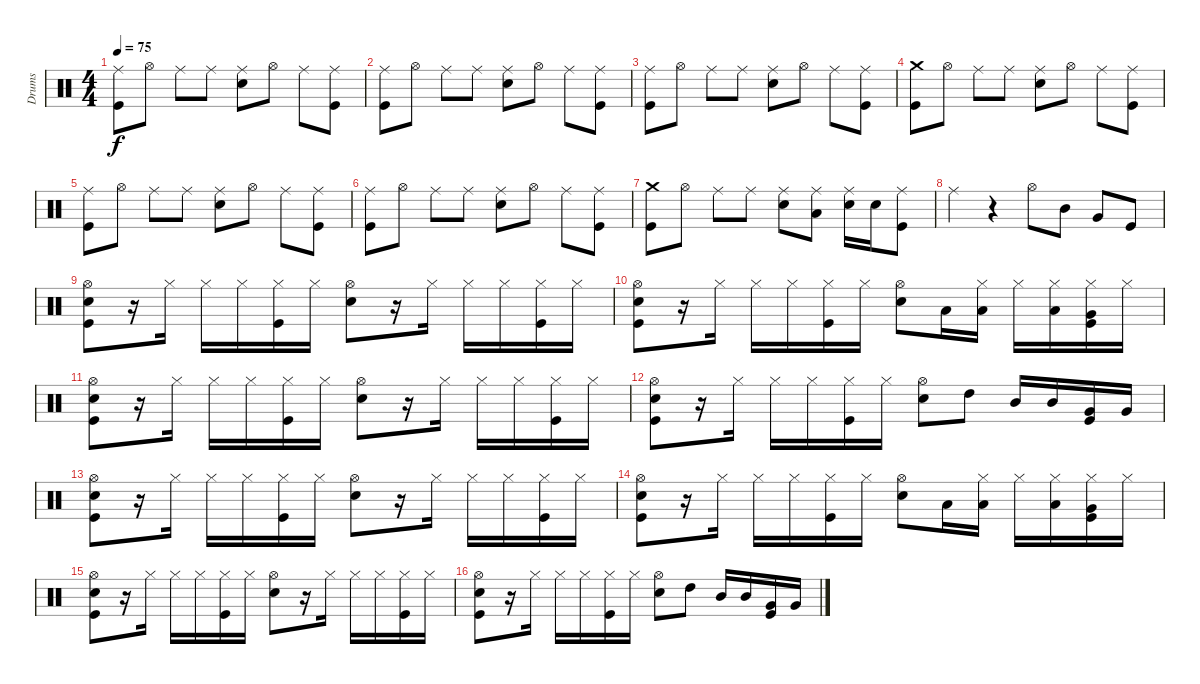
\track ("Drums" "Drums") {instrument percussion}
\staff {score}
\articulation defaults
\ts (4 4)
\tempo 75
\clef neutral
\ks c
("Ride (middle)" "Kick (hit)").8{dy f} "Hi-Hat (open)".8 "Ride (middle)".8 "Ride (middle)".8 ("Snare (hit) 2" "Ride (middle)").8 "Hi-Hat (open)".8 "Ride (middle)".8 ("Kick (hit)" "Ride (middle)").8 |
("Ride (middle)" "Kick (hit)").8 "Hi-Hat (open)".8 "Ride (middle)".8 "Ride (middle)".8 ("Snare (hit) 2" "Ride (middle)").8 "Hi-Hat (open)".8 "Ride (middle)".8 ("Kick (hit)" "Ride (middle)").8 |
("Ride (middle)" "Kick (hit)").8 "Hi-Hat (open)".8 "Ride (middle)".8 "Ride (middle)".8 ("Snare (hit) 2" "Ride (middle)").8 "Hi-Hat (open)".8 "Ride (middle)".8 ("Kick (hit)" "Ride (middle)").8 |
("Crash medium (hit)" "Kick (hit)").8 "Hi-Hat (open)".8 "Ride (middle)".8 "Ride (middle)".8 ("Snare (hit) 2" "Ride (middle)").8 "Hi-Hat (open)".8 "Ride (middle)".8 ("Kick (hit)" "Ride (middle)").8 |
("Ride (middle)" "Kick (hit)").8 "Hi-Hat (open)".8 "Ride (middle)".8 "Ride (middle)".8 ("Snare (hit) 2" "Ride (middle)").8 "Hi-Hat (open)".8 "Ride (middle)".8 ("Kick (hit)" "Ride (middle)").8 |
("Ride (middle)" "Kick (hit)").8 "Hi-Hat (open)".8 "Ride (middle)".8 "Ride (middle)".8 ("Snare (hit) 2" "Ride (middle)").8 "Hi-Hat (open)".8 "Ride (middle)".8 ("Kick (hit)" "Ride (middle)").8 |
("Crash medium (hit)" "Kick (hit)").8 "Hi-Hat (open)".8 "Ride (middle)".8 "Ride (middle)".8 ("Snare (hit) 2" "Ride (middle)").8 ("Low Floor Tom (hit)" "Ride (middle)").8 ("Snare (hit) 2" "Ride (middle)").16 "Snare (hit) 2".16 ("Kick (hit)" "Ride (middle)").8 |
"Ride (middle)".4 r.4 "Hi-Hat (open)".8 "Mid Tom (hit)".8 "Very Low Tom (hit)".8 "Kick (hit)".8 |
("Hi-Hat (open)" "Kick (hit)" "Snare (hit) 2").8 r.16 "Hi-Hat (closed)".16 "Hi-Hat (closed)".16 "Hi-Hat (closed)".16 ("Kick (hit)" "Hi-Hat (closed)").16 "Hi-Hat (closed)".16 ("Snare (hit) 2" "Hi-Hat (open)").8 r.16 "Hi-Hat (closed)".16 "Hi-Hat (closed)".16 "Hi-Hat (closed)".16 ("Kick (hit)" "Hi-Hat (closed)").16 "Hi-Hat (closed)".16 |
("Hi-Hat (open)" "Kick (hit)" "Snare (hit) 2").8 r.16 "Hi-Hat (closed)".16 "Hi-Hat (closed)".16 "Hi-Hat (closed)".16 ("Kick (hit)" "Hi-Hat (closed)").16 "Hi-Hat (closed)".16 ("Snare (hit) 2" "Hi-Hat (open)").8 "Low Tom (hit)".16 ("Low Tom (hit)" "Hi-Hat (closed)").16 "Hi-Hat (closed)".16 ("Low Tom (hit)" "Hi-Hat (closed)").16 ("Very Low Tom (hit)" "Kick (hit)" "Hi-Hat (closed)").16 "Hi-Hat (closed)".16 |
("Hi-Hat (open)" "Kick (hit)" "Snare (hit) 2").8 r.16 "Hi-Hat (closed)".16 "Hi-Hat (closed)".16 "Hi-Hat (closed)".16 ("Kick (hit)" "Hi-Hat (closed)").16 "Hi-Hat (closed)".16 ("Snare (hit) 2" "Hi-Hat (open)").8 r.16 "Hi-Hat (closed)".16 "Hi-Hat (closed)".16 "Hi-Hat (closed)".16 ("Kick (hit)" "Hi-Hat (closed)").16 "Hi-Hat (closed)".16 |
("Hi-Hat (open)" "Kick (hit)" "Snare (hit) 2").8 r.16 "Hi-Hat (closed)".16 "Hi-Hat (closed)".16 "Hi-Hat (closed)".16 ("Kick (hit)" "Hi-Hat (closed)").16 "Hi-Hat (closed)".16 ("Snare (hit) 2" "Hi-Hat (open)").8 "High Tom (hit)".8 "Mid Tom (hit)".16 "Mid Tom (hit)".16 ("Very Low Tom (hit)" "Kick (hit)").16 "Very Low Tom (hit)".16 |
("Hi-Hat (open)" "Kick (hit)" "Snare (hit) 2").8 r.16 "Hi-Hat (closed)".16 "Hi-Hat (closed)".16 "Hi-Hat (closed)".16 ("Kick (hit)" "Hi-Hat (closed)").16 "Hi-Hat (closed)".16 ("Snare (hit) 2" "Hi-Hat (open)").8 r.16 "Hi-Hat (closed)".16 "Hi-Hat (closed)".16 "Hi-Hat (closed)".16 ("Kick (hit)" "Hi-Hat (closed)").16 "Hi-Hat (closed)".16 |
("Hi-Hat (open)" "Kick (hit)" "Snare (hit) 2").8 r.16 "Hi-Hat (closed)".16 "Hi-Hat (closed)".16 "Hi-Hat (closed)".16 ("Kick (hit)" "Hi-Hat (closed)").16 "Hi-Hat (closed)".16 ("Snare (hit) 2" "Hi-Hat (open)").8 "Low Tom (hit)".16 ("Low Tom (hit)" "Hi-Hat (closed)").16 "Hi-Hat (closed)".16 ("Low Tom (hit)" "Hi-Hat (closed)").16 ("Very Low Tom (hit)" "Kick (hit)" "Hi-Hat (closed)").16 "Hi-Hat (closed)".16 |
("Hi-Hat (open)" "Kick (hit)" "Snare (hit) 2").8 r.16 "Hi-Hat (closed)".16 "Hi-Hat (closed)".16 "Hi-Hat (closed)".16 ("Kick (hit)" "Hi-Hat (closed)").16 "Hi-Hat (closed)".16 ("Snare (hit) 2" "Hi-Hat (open)").8 r.16 "Hi-Hat (closed)".16 "Hi-Hat (closed)".16 "Hi-Hat (closed)".16 ("Kick (hit)" "Hi-Hat (closed)").16 "Hi-Hat (closed)".16 |
("Hi-Hat (open)" "Kick (hit)" "Snare (hit) 2").8 r.16 "Hi-Hat (closed)".16 "Hi-Hat (closed)".16 "Hi-Hat (closed)".16 ("Kick (hit)" "Hi-Hat (closed)").16 "Hi-Hat (closed)".16 ("Snare (hit) 2" "Hi-Hat (open)").8 "High Tom (hit)".8 "Mid Tom (hit)".16 "Mid Tom (hit)".16 ("Very Low Tom (hit)" "Kick (hit)").16 "Very Low Tom (hit)".16
